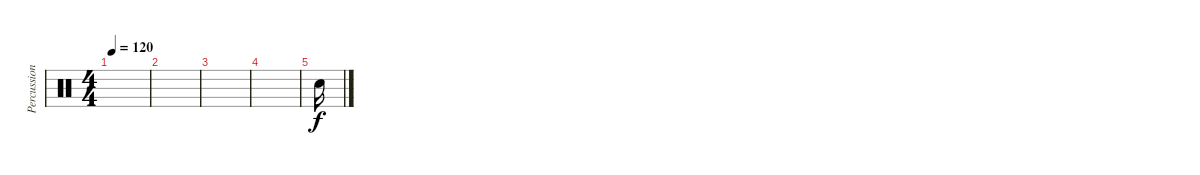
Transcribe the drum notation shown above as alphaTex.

\track ("Percussion" "Percussion") {instrument percussion}
\staff {score}
\articulation defaults
\ts (4 4)
\tempo 120
\clef neutral
\ks c
|
|
|
|
"Snare (hit)".16
